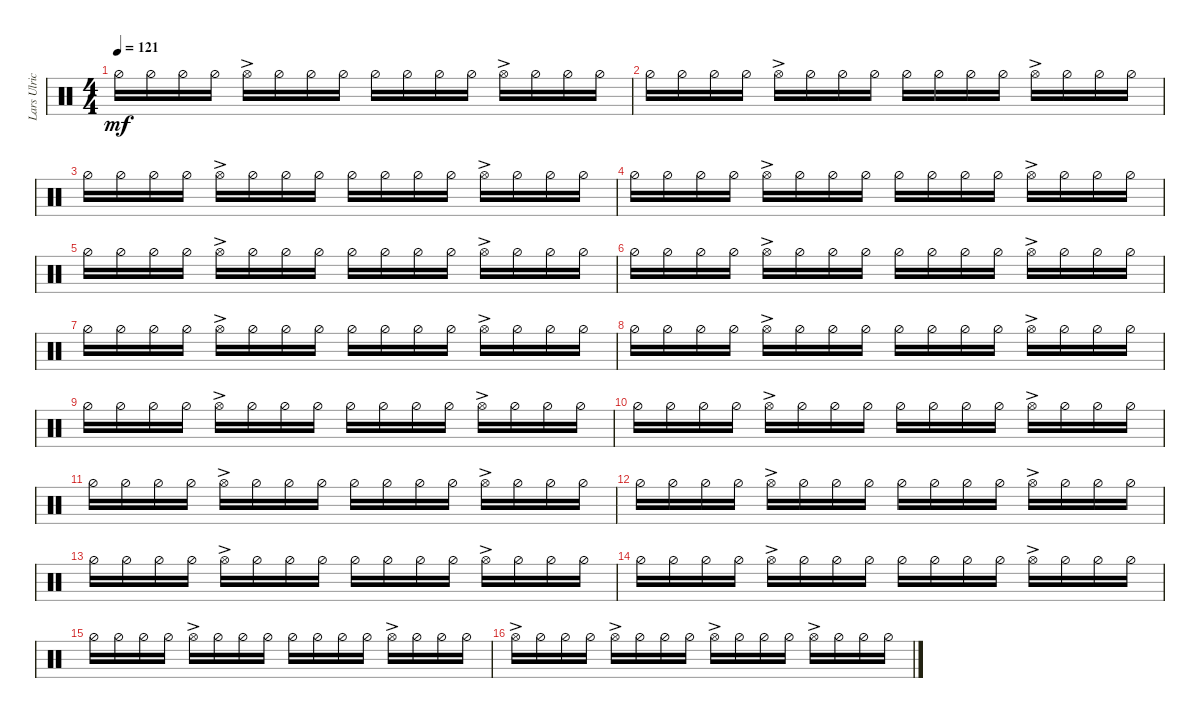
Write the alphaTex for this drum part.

\track ("Lars Ulrich" "Lars Ulric") {instrument percussion}
\staff {score}
\articulation defaults
\ts (4 4)
\tempo 121
\clef neutral
\ks c "Hi-Hat (half)".16{dy mf} "Hi-Hat (half)".16 "Hi-Hat (half)".16 "Hi-Hat (half)".16 "Hi-Hat (open)"{ac}.16 "Hi-Hat (half)".16 "Hi-Hat (half)".16 "Hi-Hat (half)".16 "Hi-Hat (half)".16 "Hi-Hat (half)".16 "Hi-Hat (half)".16 "Hi-Hat (half)".16 "Hi-Hat (open)"{ac}.16 "Hi-Hat (half)".16 "Hi-Hat (half)".16 "Hi-Hat (half)".16
|
"Hi-Hat (half)".16 "Hi-Hat (half)".16 "Hi-Hat (half)".16 "Hi-Hat (half)".16 "Hi-Hat (open)"{ac}.16 "Hi-Hat (half)".16 "Hi-Hat (half)".16 "Hi-Hat (half)".16 "Hi-Hat (half)".16 "Hi-Hat (half)".16 "Hi-Hat (half)".16 "Hi-Hat (half)".16 "Hi-Hat (open)"{ac}.16 "Hi-Hat (half)".16 "Hi-Hat (half)".16 "Hi-Hat (half)".16 |
"Hi-Hat (half)".16 "Hi-Hat (half)".16 "Hi-Hat (half)".16 "Hi-Hat (half)".16 "Hi-Hat (open)"{ac}.16 "Hi-Hat (half)".16 "Hi-Hat (half)".16 "Hi-Hat (half)".16 "Hi-Hat (half)".16 "Hi-Hat (half)".16 "Hi-Hat (half)".16 "Hi-Hat (half)".16 "Hi-Hat (open)"{ac}.16 "Hi-Hat (half)".16 "Hi-Hat (half)".16 "Hi-Hat (half)".16 |
"Hi-Hat (half)".16 "Hi-Hat (half)".16 "Hi-Hat (half)".16 "Hi-Hat (half)".16 "Hi-Hat (open)"{ac}.16 "Hi-Hat (half)".16 "Hi-Hat (half)".16 "Hi-Hat (half)".16 "Hi-Hat (half)".16 "Hi-Hat (half)".16 "Hi-Hat (half)".16 "Hi-Hat (half)".16 "Hi-Hat (open)"{ac}.16 "Hi-Hat (half)".16 "Hi-Hat (half)".16 "Hi-Hat (half)".16 |
"Hi-Hat (half)".16 "Hi-Hat (half)".16 "Hi-Hat (half)".16 "Hi-Hat (half)".16 "Hi-Hat (open)"{ac}.16 "Hi-Hat (half)".16 "Hi-Hat (half)".16 "Hi-Hat (half)".16 "Hi-Hat (half)".16 "Hi-Hat (half)".16 "Hi-Hat (half)".16 "Hi-Hat (half)".16 "Hi-Hat (open)"{ac}.16 "Hi-Hat (half)".16 "Hi-Hat (half)".16 "Hi-Hat (half)".16 |
"Hi-Hat (half)".16 "Hi-Hat (half)".16 "Hi-Hat (half)".16 "Hi-Hat (half)".16 "Hi-Hat (open)"{ac}.16 "Hi-Hat (half)".16 "Hi-Hat (half)".16 "Hi-Hat (half)".16 "Hi-Hat (half)".16 "Hi-Hat (half)".16 "Hi-Hat (half)".16 "Hi-Hat (half)".16 "Hi-Hat (open)"{ac}.16 "Hi-Hat (half)".16 "Hi-Hat (half)".16 "Hi-Hat (half)".16 |
"Hi-Hat (half)".16 "Hi-Hat (half)".16 "Hi-Hat (half)".16 "Hi-Hat (half)".16 "Hi-Hat (open)"{ac}.16 "Hi-Hat (half)".16 "Hi-Hat (half)".16 "Hi-Hat (half)".16 "Hi-Hat (half)".16 "Hi-Hat (half)".16 "Hi-Hat (half)".16 "Hi-Hat (half)".16 "Hi-Hat (open)"{ac}.16 "Hi-Hat (half)".16 "Hi-Hat (half)".16 "Hi-Hat (half)".16 |
"Hi-Hat (half)".16 "Hi-Hat (half)".16 "Hi-Hat (half)".16 "Hi-Hat (half)".16 "Hi-Hat (open)"{ac}.16 "Hi-Hat (half)".16 "Hi-Hat (half)".16 "Hi-Hat (half)".16 "Hi-Hat (half)".16 "Hi-Hat (half)".16 "Hi-Hat (half)".16 "Hi-Hat (half)".16 "Hi-Hat (open)"{ac}.16 "Hi-Hat (half)".16 "Hi-Hat (half)".16 "Hi-Hat (half)".16 |
"Hi-Hat (half)".16 "Hi-Hat (half)".16 "Hi-Hat (half)".16 "Hi-Hat (half)".16 "Hi-Hat (open)"{ac}.16 "Hi-Hat (half)".16 "Hi-Hat (half)".16 "Hi-Hat (half)".16 "Hi-Hat (half)".16 "Hi-Hat (half)".16 "Hi-Hat (half)".16 "Hi-Hat (half)".16 "Hi-Hat (open)"{ac}.16 "Hi-Hat (half)".16 "Hi-Hat (half)".16 "Hi-Hat (half)".16 |
"Hi-Hat (half)".16 "Hi-Hat (half)".16 "Hi-Hat (half)".16 "Hi-Hat (half)".16 "Hi-Hat (open)"{ac}.16 "Hi-Hat (half)".16 "Hi-Hat (half)".16 "Hi-Hat (half)".16 "Hi-Hat (half)".16 "Hi-Hat (half)".16 "Hi-Hat (half)".16 "Hi-Hat (half)".16 "Hi-Hat (open)"{ac}.16 "Hi-Hat (half)".16 "Hi-Hat (half)".16 "Hi-Hat (half)".16 |
"Hi-Hat (half)".16 "Hi-Hat (half)".16 "Hi-Hat (half)".16 "Hi-Hat (half)".16 "Hi-Hat (open)"{ac}.16 "Hi-Hat (half)".16 "Hi-Hat (half)".16 "Hi-Hat (half)".16 "Hi-Hat (half)".16 "Hi-Hat (half)".16 "Hi-Hat (half)".16 "Hi-Hat (half)".16 "Hi-Hat (open)"{ac}.16 "Hi-Hat (half)".16 "Hi-Hat (half)".16 "Hi-Hat (half)".16 |
"Hi-Hat (half)".16 "Hi-Hat (half)".16 "Hi-Hat (half)".16 "Hi-Hat (half)".16 "Hi-Hat (open)"{ac}.16 "Hi-Hat (half)".16 "Hi-Hat (half)".16 "Hi-Hat (half)".16 "Hi-Hat (half)".16 "Hi-Hat (half)".16 "Hi-Hat (half)".16 "Hi-Hat (half)".16 "Hi-Hat (open)"{ac}.16 "Hi-Hat (half)".16 "Hi-Hat (half)".16 "Hi-Hat (half)".16 |
"Hi-Hat (half)".16 "Hi-Hat (half)".16 "Hi-Hat (half)".16 "Hi-Hat (half)".16 "Hi-Hat (open)"{ac}.16 "Hi-Hat (half)".16 "Hi-Hat (half)".16 "Hi-Hat (half)".16 "Hi-Hat (half)".16 "Hi-Hat (half)".16 "Hi-Hat (half)".16 "Hi-Hat (half)".16 "Hi-Hat (open)"{ac}.16 "Hi-Hat (half)".16 "Hi-Hat (half)".16 "Hi-Hat (half)".16 |
"Hi-Hat (half)".16 "Hi-Hat (half)".16 "Hi-Hat (half)".16 "Hi-Hat (half)".16 "Hi-Hat (open)"{ac}.16 "Hi-Hat (half)".16 "Hi-Hat (half)".16 "Hi-Hat (half)".16 "Hi-Hat (half)".16 "Hi-Hat (half)".16 "Hi-Hat (half)".16 "Hi-Hat (half)".16 "Hi-Hat (open)"{ac}.16 "Hi-Hat (half)".16 "Hi-Hat (half)".16 "Hi-Hat (half)".16 |
"Hi-Hat (half)".16 "Hi-Hat (half)".16 "Hi-Hat (half)".16 "Hi-Hat (half)".16 "Hi-Hat (open)"{ac}.16 "Hi-Hat (half)".16 "Hi-Hat (half)".16 "Hi-Hat (half)".16 "Hi-Hat (half)".16 "Hi-Hat (half)".16 "Hi-Hat (half)".16 "Hi-Hat (half)".16 "Hi-Hat (open)"{ac}.16 "Hi-Hat (half)".16 "Hi-Hat (half)".16 "Hi-Hat (half)".16 |
"Hi-Hat (open)"{ac}.16 "Hi-Hat (half)".16 "Hi-Hat (half)".16 "Hi-Hat (half)".16 "Hi-Hat (open)"{ac}.16 "Hi-Hat (half)".16 "Hi-Hat (half)".16 "Hi-Hat (half)".16 "Hi-Hat (open)"{ac}.16 "Hi-Hat (half)".16 "Hi-Hat (half)".16 "Hi-Hat (half)".16 "Hi-Hat (open)"{ac}.16 "Hi-Hat (half)".16 "Hi-Hat (half)".16 "Hi-Hat (half)".16
